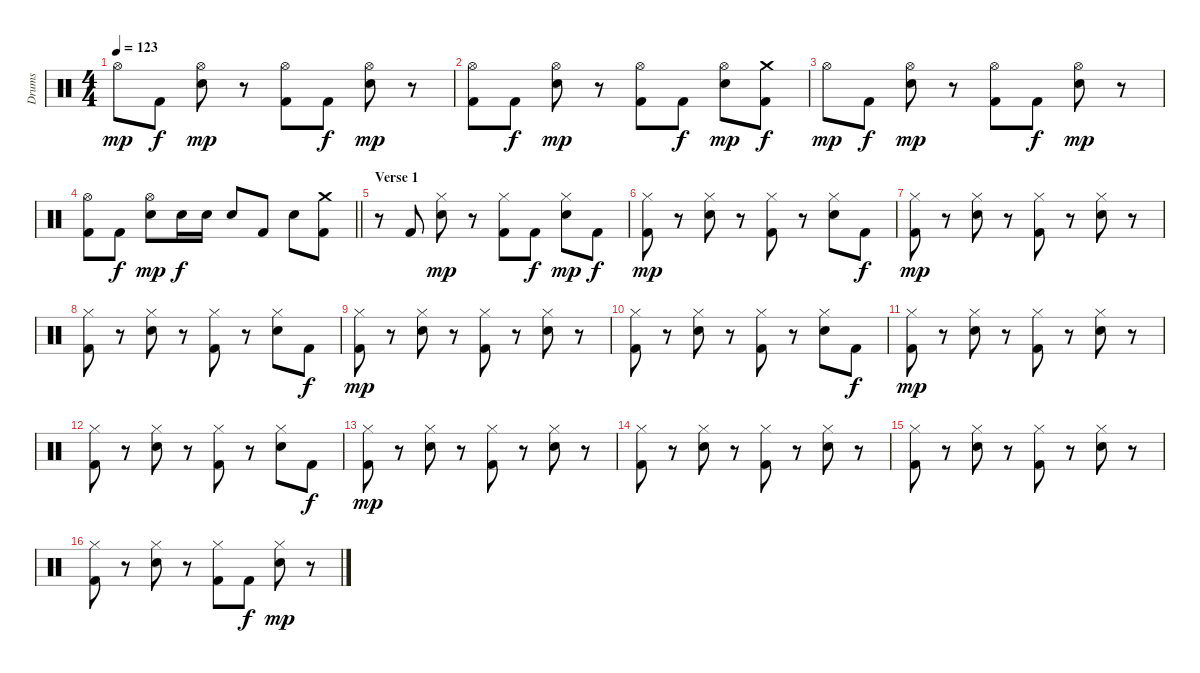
\track ("Drums" "Drums") {instrument percussion}
\staff {score}
\articulation defaults
\ts (4 4)
\tempo 123
\clef neutral
\ks c "Hi-Hat (open)".8{dy mp} "Kick (hit) 2".8{dy f}
("Hi-Hat (open)" "Snare (hit) 2").8{dy mp} r.8 ("Hi-Hat (open)" "Kick (hit) 2").8 "Kick (hit) 2".8{dy f} ("Hi-Hat (open)" "Snare (hit) 2").8{dy mp} r.8 |
("Hi-Hat (open)" "Kick (hit) 2").8 "Kick (hit) 2".8{dy f} ("Hi-Hat (open)" "Snare (hit) 2").8{dy mp} r.8 ("Hi-Hat (open)" "Kick (hit) 2").8 "Kick (hit) 2".8{dy f} ("Hi-Hat (open)" "Snare (hit) 2").8{dy mp} ("Crash medium (hit)" "Kick (hit) 2").8{dy f} |
"Hi-Hat (open)".8{dy mp} "Kick (hit) 2".8{dy f} ("Hi-Hat (open)" "Snare (hit) 2").8{dy mp} r.8 ("Hi-Hat (open)" "Kick (hit) 2").8 "Kick (hit) 2".8{dy f} ("Hi-Hat (open)" "Snare (hit) 2").8{dy mp} r.8 |
\barLineRight lightlight
("Hi-Hat (open)" "Kick (hit) 2").8 "Kick (hit) 2".8{dy f} ("Hi-Hat (open)" "Snare (hit) 2").8{dy mp} "Snare (hit) 2".16{dy f} "Snare (hit) 2".16 "Snare (hit) 2".8 "Kick (hit) 2".8 "Snare (hit) 2".8 ("Crash medium (hit)" "Kick (hit) 2").8 |
\section ("" "Verse 1")
r.8 "Kick (hit) 2".8 ("Hi-Hat (closed)" "Snare (hit) 2").8{dy mp} r.8 ("Hi-Hat (closed)" "Kick (hit) 2").8 "Kick (hit) 2".8{dy f} ("Hi-Hat (closed)" "Snare (hit) 2").8{dy mp} "Kick (hit) 2".8{dy f} |
("Hi-Hat (closed)" "Kick (hit) 2").8{dy mp} r.8 ("Hi-Hat (closed)" "Snare (hit) 2").8 r.8 ("Hi-Hat (closed)" "Kick (hit) 2").8 r.8 ("Hi-Hat (closed)" "Snare (hit) 2").8 "Kick (hit) 2".8{dy f} |
("Hi-Hat (closed)" "Kick (hit) 2").8{dy mp} r.8 ("Hi-Hat (closed)" "Snare (hit) 2").8 r.8 ("Hi-Hat (closed)" "Kick (hit) 2").8 r.8 ("Hi-Hat (closed)" "Snare (hit) 2").8 r.8 |
("Hi-Hat (closed)" "Kick (hit) 2").8 r.8 ("Hi-Hat (closed)" "Snare (hit) 2").8 r.8 ("Hi-Hat (closed)" "Kick (hit) 2").8 r.8 ("Hi-Hat (closed)" "Snare (hit) 2").8 "Kick (hit) 2".8{dy f} |
("Hi-Hat (closed)" "Kick (hit) 2").8{dy mp} r.8 ("Hi-Hat (closed)" "Snare (hit) 2").8 r.8 ("Hi-Hat (closed)" "Kick (hit) 2").8 r.8 ("Hi-Hat (closed)" "Snare (hit) 2").8 r.8 |
("Hi-Hat (closed)" "Kick (hit) 2").8 r.8 ("Hi-Hat (closed)" "Snare (hit) 2").8 r.8 ("Hi-Hat (closed)" "Kick (hit) 2").8 r.8 ("Hi-Hat (closed)" "Snare (hit) 2").8 "Kick (hit) 2".8{dy f} |
("Hi-Hat (closed)" "Kick (hit) 2").8{dy mp} r.8 ("Hi-Hat (closed)" "Snare (hit) 2").8 r.8 ("Hi-Hat (closed)" "Kick (hit) 2").8 r.8 ("Hi-Hat (closed)" "Snare (hit) 2").8 r.8 |
("Hi-Hat (closed)" "Kick (hit) 2").8 r.8 ("Hi-Hat (closed)" "Snare (hit) 2").8 r.8 ("Hi-Hat (closed)" "Kick (hit) 2").8 r.8 ("Hi-Hat (closed)" "Snare (hit) 2").8 "Kick (hit) 2".8{dy f} |
("Hi-Hat (closed)" "Kick (hit) 2").8{dy mp} r.8 ("Hi-Hat (closed)" "Snare (hit) 2").8 r.8 ("Hi-Hat (closed)" "Kick (hit) 2").8 r.8 ("Hi-Hat (closed)" "Snare (hit) 2").8 r.8 |
("Hi-Hat (closed)" "Kick (hit) 2").8 r.8 ("Hi-Hat (closed)" "Snare (hit) 2").8 r.8 ("Hi-Hat (closed)" "Kick (hit) 2").8 r.8 ("Hi-Hat (closed)" "Snare (hit) 2").8 r.8 |
("Hi-Hat (closed)" "Kick (hit) 2").8 r.8 ("Hi-Hat (closed)" "Snare (hit) 2").8 r.8 ("Hi-Hat (closed)" "Kick (hit) 2").8 r.8 ("Hi-Hat (closed)" "Snare (hit) 2").8 r.8 |
("Hi-Hat (closed)" "Kick (hit) 2").8 r.8 ("Hi-Hat (closed)" "Snare (hit) 2").8 r.8 ("Hi-Hat (closed)" "Kick (hit) 2").8 "Kick (hit) 2".8{dy f} ("Hi-Hat (closed)" "Snare (hit) 2").8{dy mp} r.8
